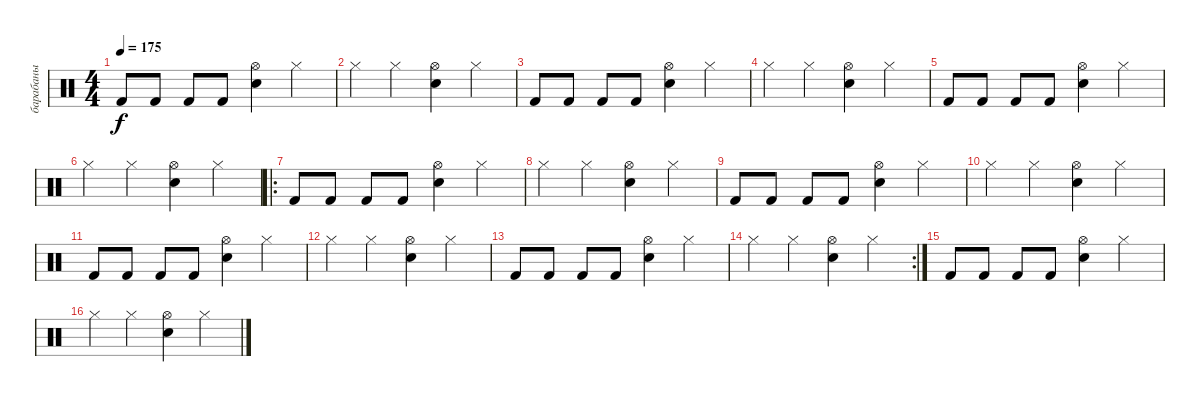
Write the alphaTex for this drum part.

\track ("барабаны" "барабаны") {instrument percussion}
\staff {score}
\articulation defaults
\ts (4 4)
\tempo 175
\clef neutral
\ks c "Kick (hit) 2".8{dy f} "Kick (hit) 2".8 "Kick (hit) 2".8 "Kick (hit) 2".8
("Hi-Hat (open)" "Snare (hit) 2").4 "Hi-Hat (closed)".4 |
"Hi-Hat (closed)".4 "Hi-Hat (closed)".4 ("Hi-Hat (open)" "Snare (hit) 2").4 "Hi-Hat (closed)".4 |
"Kick (hit) 2".8 "Kick (hit) 2".8 "Kick (hit) 2".8 "Kick (hit) 2".8 ("Hi-Hat (open)" "Snare (hit) 2").4 "Hi-Hat (closed)".4 |
"Hi-Hat (closed)".4 "Hi-Hat (closed)".4 ("Hi-Hat (open)" "Snare (hit) 2").4 "Hi-Hat (closed)".4 |
"Kick (hit) 2".8 "Kick (hit) 2".8 "Kick (hit) 2".8 "Kick (hit) 2".8 ("Hi-Hat (open)" "Snare (hit) 2").4 "Hi-Hat (closed)".4 |
"Hi-Hat (closed)".4 "Hi-Hat (closed)".4 ("Hi-Hat (open)" "Snare (hit) 2").4 "Hi-Hat (closed)".4 |
\ro "Kick (hit) 2".8 "Kick (hit) 2".8 "Kick (hit) 2".8 "Kick (hit) 2".8
("Hi-Hat (open)" "Snare (hit) 2").4 "Hi-Hat (closed)".4 |
"Hi-Hat (closed)".4 "Hi-Hat (closed)".4 ("Hi-Hat (open)" "Snare (hit) 2").4 "Hi-Hat (closed)".4 |
"Kick (hit) 2".8 "Kick (hit) 2".8 "Kick (hit) 2".8 "Kick (hit) 2".8 ("Hi-Hat (open)" "Snare (hit) 2").4 "Hi-Hat (closed)".4 |
"Hi-Hat (closed)".4 "Hi-Hat (closed)".4 ("Hi-Hat (open)" "Snare (hit) 2").4 "Hi-Hat (closed)".4 |
"Kick (hit) 2".8 "Kick (hit) 2".8 "Kick (hit) 2".8 "Kick (hit) 2".8 ("Hi-Hat (open)" "Snare (hit) 2").4 "Hi-Hat (closed)".4 |
"Hi-Hat (closed)".4 "Hi-Hat (closed)".4 ("Hi-Hat (open)" "Snare (hit) 2").4 "Hi-Hat (closed)".4 |
"Kick (hit) 2".8 "Kick (hit) 2".8 "Kick (hit) 2".8 "Kick (hit) 2".8 ("Hi-Hat (open)" "Snare (hit) 2").4 "Hi-Hat (closed)".4 |
\rc 2 "Hi-Hat (closed)".4 "Hi-Hat (closed)".4
("Hi-Hat (open)" "Snare (hit) 2").4 "Hi-Hat (closed)".4 |
"Kick (hit) 2".8 "Kick (hit) 2".8 "Kick (hit) 2".8 "Kick (hit) 2".8 ("Hi-Hat (open)" "Snare (hit) 2").4 "Hi-Hat (closed)".4 |
"Hi-Hat (closed)".4 "Hi-Hat (closed)".4 ("Hi-Hat (open)" "Snare (hit) 2").4 "Hi-Hat (closed)".4
